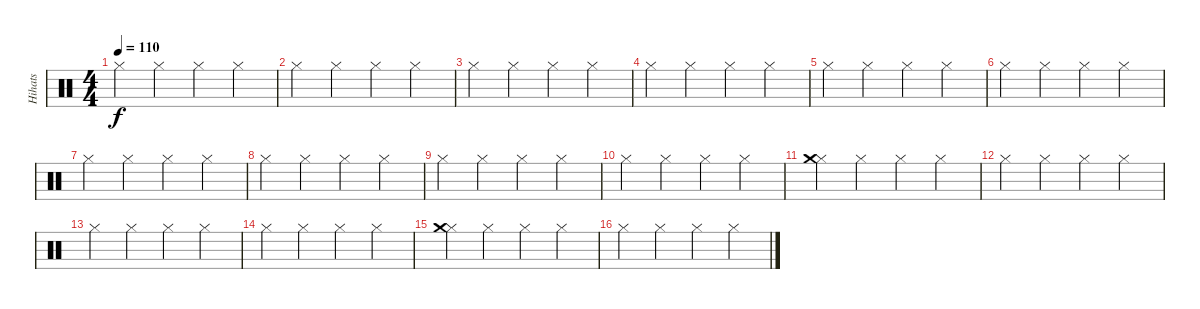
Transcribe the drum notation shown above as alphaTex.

\track ("Hihats" "Hihats") {instrument percussion}
\staff {score}
\articulation defaults
\ts (4 4)
\tempo 110
\clef neutral
\ks c "Hi-Hat (closed)".4{dy f} "Hi-Hat (closed)".4 "Hi-Hat (closed)".4 "Hi-Hat (closed)".4
|
"Hi-Hat (closed)".4 "Hi-Hat (closed)".4 "Hi-Hat (closed)".4 "Hi-Hat (closed)".4 |
"Hi-Hat (closed)".4 "Hi-Hat (closed)".4 "Hi-Hat (closed)".4 "Hi-Hat (closed)".4 |
"Hi-Hat (closed)".4 "Hi-Hat (closed)".4 "Hi-Hat (closed)".4 "Hi-Hat (closed)".4 |
"Hi-Hat (closed)".4 "Hi-Hat (closed)".4 "Hi-Hat (closed)".4 "Hi-Hat (closed)".4 |
"Hi-Hat (closed)".4 "Hi-Hat (closed)".4 "Hi-Hat (closed)".4 "Hi-Hat (closed)".4 |
"Hi-Hat (closed)".4 "Hi-Hat (closed)".4 "Hi-Hat (closed)".4 "Hi-Hat (closed)".4 |
"Hi-Hat (closed)".4 "Hi-Hat (closed)".4 "Hi-Hat (closed)".4 "Hi-Hat (closed)".4 |
"Hi-Hat (closed)".4 "Hi-Hat (closed)".4 "Hi-Hat (closed)".4 "Hi-Hat (closed)".4 |
"Hi-Hat (closed)".4 "Hi-Hat (closed)".4 "Hi-Hat (closed)".4 "Hi-Hat (closed)".4 |
("Hi-Hat (closed)" "Crash medium (hit)").4 "Hi-Hat (closed)".4 "Hi-Hat (closed)".4 "Hi-Hat (closed)".4 |
"Hi-Hat (closed)".4 "Hi-Hat (closed)".4 "Hi-Hat (closed)".4 "Hi-Hat (closed)".4 |
"Hi-Hat (closed)".4 "Hi-Hat (closed)".4 "Hi-Hat (closed)".4 "Hi-Hat (closed)".4 |
"Hi-Hat (closed)".4 "Hi-Hat (closed)".4 "Hi-Hat (closed)".4 "Hi-Hat (closed)".4 |
("Hi-Hat (closed)" "Crash medium (hit)").4 "Hi-Hat (closed)".4 "Hi-Hat (closed)".4 "Hi-Hat (closed)".4 |
"Hi-Hat (closed)".4 "Hi-Hat (closed)".4 "Hi-Hat (closed)".4 "Hi-Hat (closed)".4
